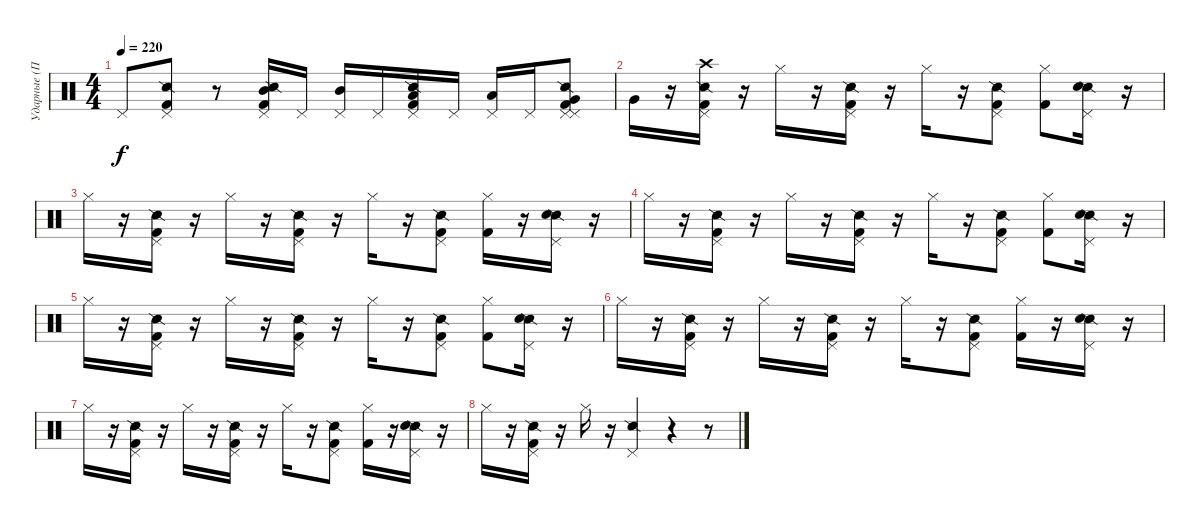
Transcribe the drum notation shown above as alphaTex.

\track ("Ударные (Потапкин)" "Ударные (П") {instrument percussion}
\staff {score}
\articulation defaults
\ts (4 4)
\tempo 220
\clef neutral
\ks c "Pedal Hi-Hat (hit)".8{dy f}
("Pedal Hi-Hat (hit)" "Snare (side stick) 2" "Kick (hit) 2").8 r.8 ("Mid Tom (hit)" "Pedal Hi-Hat (hit)" "Snare (side stick) 2" "Kick (hit) 2").16 "Pedal Hi-Hat (hit)".16 ("Pedal Hi-Hat (hit)" "Mid Tom (hit)").16 "Pedal Hi-Hat (hit)".16 ("Low Tom (hit)" "Pedal Hi-Hat (hit)" "Snare (side stick) 2" "Kick (hit) 2").16 "Pedal Hi-Hat (hit)".16 ("Pedal Hi-Hat (hit)" "Low Tom (hit)").16 "Pedal Hi-Hat (hit)".16 ("Very Low Tom (hit)" "Pedal Hi-Hat (hit)" "Pedal Hi-Hat (hit)" "Kick (hit) 2" "Snare (side stick) 2").8 |
"Very Low Tom (hit)".16 r.16 ("Crash high (hit)" "Snare (side stick) 2" "Pedal Hi-Hat (hit)" "Kick (hit) 2").16 r.16 "Hi-Hat (closed)".16 r.16 ("Snare (side stick) 2" "Pedal Hi-Hat (hit)" "Kick (hit) 2").16 r.16 "Hi-Hat (closed)".16 r.16 ("Snare (side stick) 2" "Kick (hit) 2" "Pedal Hi-Hat (hit)").8 ("Kick (hit) 2" "Hi-Hat (closed)").8 ("Snare (side stick) 2" "Pedal Hi-Hat (hit)" "Snare (hit) 2").16 r.16 |
"Hi-Hat (closed)".16 r.16 ("Snare (side stick) 2" "Pedal Hi-Hat (hit)" "Kick (hit) 2").16 r.16 "Hi-Hat (closed)".16 r.16 ("Snare (side stick) 2" "Pedal Hi-Hat (hit)" "Kick (hit) 2").16 r.16 "Hi-Hat (closed)".16 r.16 ("Snare (side stick) 2" "Kick (hit) 2" "Pedal Hi-Hat (hit)").8 ("Kick (hit) 2" "Hi-Hat (closed)").16 r.16 ("Snare (side stick) 2" "Pedal Hi-Hat (hit)" "Snare (hit) 2").16 r.16 |
"Hi-Hat (closed)".16 r.16 ("Snare (side stick) 2" "Pedal Hi-Hat (hit)" "Kick (hit) 2").16 r.16 "Hi-Hat (closed)".16 r.16 ("Snare (side stick) 2" "Pedal Hi-Hat (hit)" "Kick (hit) 2").16 r.16 "Hi-Hat (closed)".16 r.16 ("Snare (side stick) 2" "Kick (hit) 2" "Pedal Hi-Hat (hit)").8 ("Kick (hit) 2" "Hi-Hat (closed)").8 ("Snare (side stick) 2" "Pedal Hi-Hat (hit)" "Snare (hit) 2").16 r.16 |
"Hi-Hat (closed)".16 r.16 ("Snare (side stick) 2" "Pedal Hi-Hat (hit)" "Kick (hit) 2").16 r.16 "Hi-Hat (closed)".16 r.16 ("Snare (side stick) 2" "Pedal Hi-Hat (hit)" "Kick (hit) 2").16 r.16 "Hi-Hat (closed)".16 r.16 ("Snare (side stick) 2" "Kick (hit) 2" "Pedal Hi-Hat (hit)").8 ("Kick (hit) 2" "Hi-Hat (closed)").8 ("Snare (side stick) 2" "Pedal Hi-Hat (hit)" "Snare (hit) 2").16 r.16 |
"Hi-Hat (closed)".16 r.16 ("Snare (side stick) 2" "Pedal Hi-Hat (hit)" "Kick (hit) 2").16 r.16 "Hi-Hat (closed)".16 r.16 ("Snare (side stick) 2" "Pedal Hi-Hat (hit)" "Kick (hit) 2").16 r.16 "Hi-Hat (closed)".16 r.16 ("Snare (side stick) 2" "Kick (hit) 2" "Pedal Hi-Hat (hit)").8 ("Kick (hit) 2" "Hi-Hat (closed)").16 r.16 ("Snare (side stick) 2" "Pedal Hi-Hat (hit)" "Snare (hit) 2").16 r.16 |
"Hi-Hat (closed)".16 r.16 ("Snare (side stick) 2" "Pedal Hi-Hat (hit)" "Kick (hit) 2").16 r.16 "Hi-Hat (closed)".16 r.16 ("Snare (side stick) 2" "Pedal Hi-Hat (hit)" "Kick (hit) 2").16 r.16 "Hi-Hat (closed)".16 r.16 ("Snare (side stick) 2" "Kick (hit) 2" "Pedal Hi-Hat (hit)").8 ("Kick (hit) 2" "Hi-Hat (closed)").16 r.16 ("Snare (side stick) 2" "Pedal Hi-Hat (hit)" "Snare (hit) 2").16 r.16 |
"Hi-Hat (closed)".16 r.16 ("Snare (side stick) 2" "Pedal Hi-Hat (hit)" "Kick (hit) 2").16 r.16 "Hi-Hat (closed)".16 r.16 ("Snare (side stick) 2" "Pedal Hi-Hat (hit)").4 r.4 r.8
